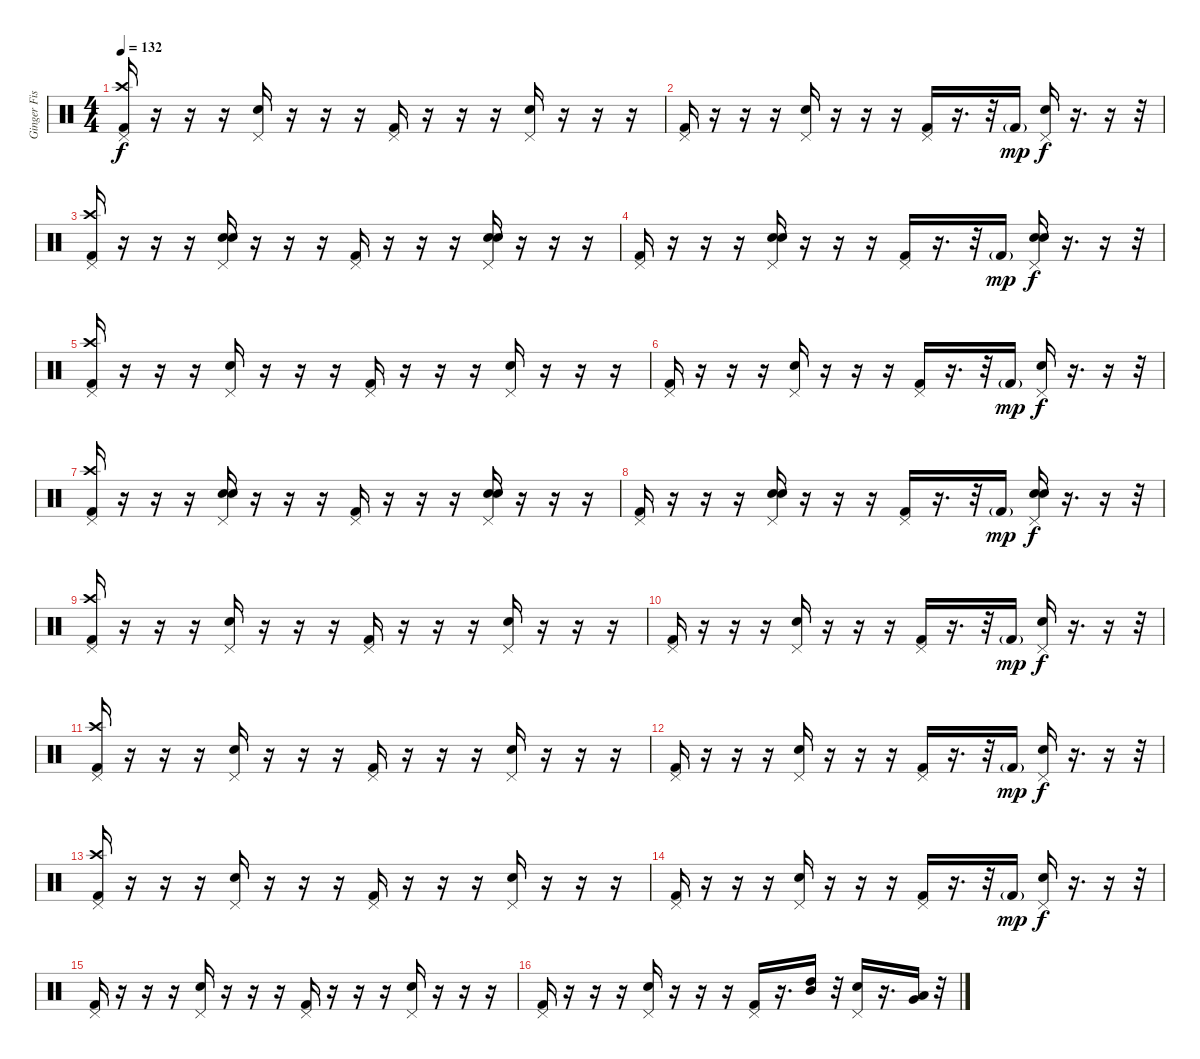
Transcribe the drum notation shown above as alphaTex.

\track ("Ginger Fish" "Ginger Fis") {instrument percussion}
\staff {score}
\articulation defaults
\ts (4 4)
\tempo 132
\clef neutral
\ks c
("Pedal Hi-Hat (hit)" "Crash high (hit)" "Kick (hit) 2").16{dy f} r.16 r.16 r.16 ("Pedal Hi-Hat (hit)" "Electric Snare (hit)").16 r.16 r.16 r.16 ("Pedal Hi-Hat (hit)" "Kick (hit) 2").16 r.16 r.16 r.16 ("Pedal Hi-Hat (hit)" "Electric Snare (hit)").16 r.16 r.16 r.16 |
("Pedal Hi-Hat (hit)" "Kick (hit) 2").16 r.16 r.16 r.16 ("Pedal Hi-Hat (hit)" "Electric Snare (hit)").16 r.16 r.16 r.16 ("Pedal Hi-Hat (hit)" "Kick (hit) 2").16 r.16{d} r.32 "Kick (hit) 2"{g}.16{dy mp} ("Pedal Hi-Hat (hit)" "Electric Snare (hit)").16{dy f} r.16{d} r.16 r.32 |
("Pedal Hi-Hat (hit)" "Crash high (hit)" "Kick (hit) 2").16 r.16 r.16 r.16 ("Pedal Hi-Hat (hit)" "Snare (hit) 2" "Hand Clap (hit)").16 r.16 r.16 r.16 ("Pedal Hi-Hat (hit)" "Kick (hit) 2").16 r.16 r.16 r.16 ("Pedal Hi-Hat (hit)" "Snare (hit) 2" "Hand Clap (hit)").16 r.16 r.16 r.16 |
("Pedal Hi-Hat (hit)" "Kick (hit) 2").16 r.16 r.16 r.16 ("Pedal Hi-Hat (hit)" "Snare (hit) 2" "Hand Clap (hit)").16 r.16 r.16 r.16 ("Pedal Hi-Hat (hit)" "Kick (hit) 2").16 r.16{d} r.32 "Kick (hit) 2"{g}.16{dy mp} ("Pedal Hi-Hat (hit)" "Snare (hit) 2" "Hand Clap (hit)").16{dy f} r.16{d} r.16 r.32 |
("Pedal Hi-Hat (hit)" "Crash high (hit)" "Kick (hit) 2").16 r.16 r.16 r.16 ("Pedal Hi-Hat (hit)" "Electric Snare (hit)").16 r.16 r.16 r.16 ("Pedal Hi-Hat (hit)" "Kick (hit) 2").16 r.16 r.16 r.16 ("Pedal Hi-Hat (hit)" "Electric Snare (hit)").16 r.16 r.16 r.16 |
("Pedal Hi-Hat (hit)" "Kick (hit) 2").16 r.16 r.16 r.16 ("Pedal Hi-Hat (hit)" "Electric Snare (hit)").16 r.16 r.16 r.16 ("Pedal Hi-Hat (hit)" "Kick (hit) 2").16 r.16{d} r.32 "Kick (hit) 2"{g}.16{dy mp} ("Pedal Hi-Hat (hit)" "Electric Snare (hit)").16{dy f} r.16{d} r.16 r.32 |
("Pedal Hi-Hat (hit)" "Crash high (hit)" "Kick (hit) 2").16 r.16 r.16 r.16 ("Pedal Hi-Hat (hit)" "Snare (hit) 2" "Hand Clap (hit)").16 r.16 r.16 r.16 ("Pedal Hi-Hat (hit)" "Kick (hit) 2").16 r.16 r.16 r.16 ("Pedal Hi-Hat (hit)" "Snare (hit) 2" "Hand Clap (hit)").16 r.16 r.16 r.16 |
("Pedal Hi-Hat (hit)" "Kick (hit) 2").16 r.16 r.16 r.16 ("Pedal Hi-Hat (hit)" "Snare (hit) 2" "Hand Clap (hit)").16 r.16 r.16 r.16 ("Pedal Hi-Hat (hit)" "Kick (hit) 2").16 r.16{d} r.32 "Kick (hit) 2"{g}.16{dy mp} ("Pedal Hi-Hat (hit)" "Snare (hit) 2" "Hand Clap (hit)").16{dy f} r.16{d} r.16 r.32 |
("Pedal Hi-Hat (hit)" "Crash high (hit)" "Kick (hit) 2").16 r.16 r.16 r.16 ("Pedal Hi-Hat (hit)" "Electric Snare (hit)").16 r.16 r.16 r.16 ("Pedal Hi-Hat (hit)" "Kick (hit) 2").16 r.16 r.16 r.16 ("Pedal Hi-Hat (hit)" "Electric Snare (hit)").16 r.16 r.16 r.16 |
("Pedal Hi-Hat (hit)" "Kick (hit) 2").16 r.16 r.16 r.16 ("Pedal Hi-Hat (hit)" "Electric Snare (hit)").16 r.16 r.16 r.16 ("Pedal Hi-Hat (hit)" "Kick (hit) 2").16 r.16{d} r.32 "Kick (hit) 2"{g}.16{dy mp} ("Pedal Hi-Hat (hit)" "Electric Snare (hit)").16{dy f} r.16{d} r.16 r.32 |
("Pedal Hi-Hat (hit)" "Crash high (hit)" "Kick (hit) 2").16 r.16 r.16 r.16 ("Pedal Hi-Hat (hit)" "Electric Snare (hit)").16 r.16 r.16 r.16 ("Pedal Hi-Hat (hit)" "Kick (hit) 2").16 r.16 r.16 r.16 ("Pedal Hi-Hat (hit)" "Electric Snare (hit)").16 r.16 r.16 r.16 |
("Pedal Hi-Hat (hit)" "Kick (hit) 2").16 r.16 r.16 r.16 ("Pedal Hi-Hat (hit)" "Electric Snare (hit)").16 r.16 r.16 r.16 ("Pedal Hi-Hat (hit)" "Kick (hit) 2").16 r.16{d} r.32 "Kick (hit) 2"{g}.16{dy mp} ("Pedal Hi-Hat (hit)" "Electric Snare (hit)").16{dy f} r.16{d} r.16 r.32 |
("Pedal Hi-Hat (hit)" "Crash high (hit)" "Kick (hit) 2").16 r.16 r.16 r.16 ("Pedal Hi-Hat (hit)" "Electric Snare (hit)").16 r.16 r.16 r.16 ("Pedal Hi-Hat (hit)" "Kick (hit) 2").16 r.16 r.16 r.16 ("Pedal Hi-Hat (hit)" "Electric Snare (hit)").16 r.16 r.16 r.16 |
("Pedal Hi-Hat (hit)" "Kick (hit) 2").16 r.16 r.16 r.16 ("Pedal Hi-Hat (hit)" "Electric Snare (hit)").16 r.16 r.16 r.16 ("Pedal Hi-Hat (hit)" "Kick (hit) 2").16 r.16{d} r.32 "Kick (hit) 2"{g}.16{dy mp} ("Pedal Hi-Hat (hit)" "Electric Snare (hit)").16{dy f} r.16{d} r.16 r.32 |
("Pedal Hi-Hat (hit)" "Kick (hit) 2").16 r.16 r.16 r.16 ("Pedal Hi-Hat (hit)" "Snare (hit) 2").16 r.16 r.16 r.16 ("Pedal Hi-Hat (hit)" "Kick (hit) 2").16 r.16 r.16 r.16 ("Pedal Hi-Hat (hit)" "Snare (hit) 2").16 r.16 r.16 r.16 |
("Pedal Hi-Hat (hit)" "Kick (hit) 2").16 r.16 r.16 r.16 ("Pedal Hi-Hat (hit)" "Snare (hit) 2").16 r.16 r.16 r.16 ("Pedal Hi-Hat (hit)" "Kick (hit) 2").16 r.16{d} ("High Tom (hit)" "Mid Tom (hit)").16 r.32 ("Pedal Hi-Hat (hit)" "Snare (hit) 2").16 r.16{d} ("Very Low Tom (hit)" "Low Tom (hit)").16 r.32
